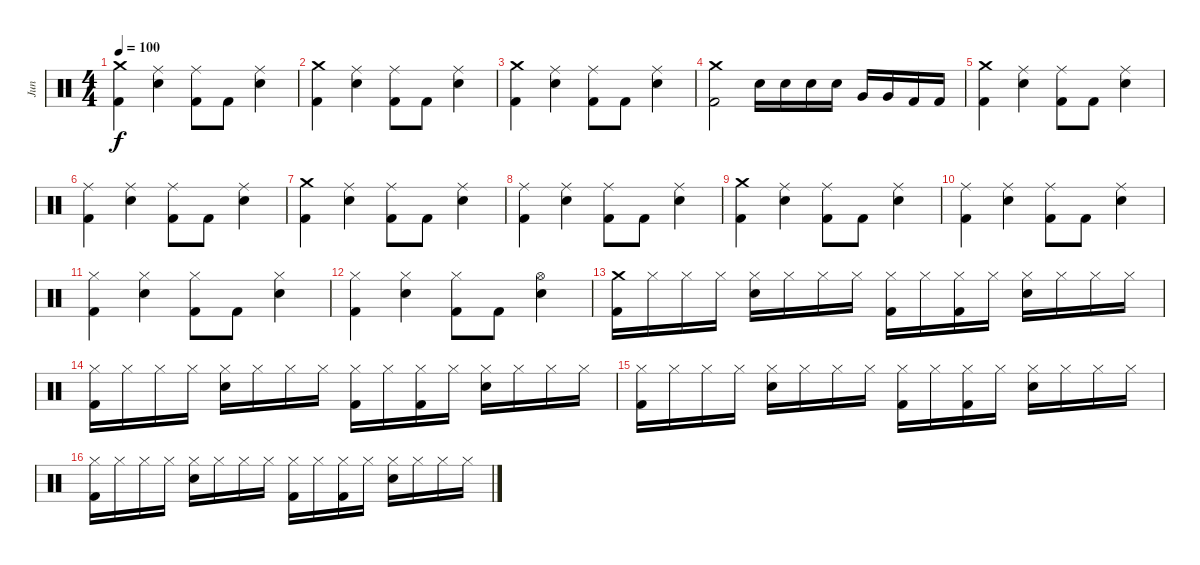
\track ("Jun " "Jun ") {instrument percussion}
\staff {score}
\articulation defaults
\ts (4 4)
\tempo 100
\clef neutral
\ks c
("Crash medium (hit)" "Kick (hit) 2").4{dy f} ("Ride (middle)" "Snare (hit) 2").4 ("Ride (middle)" "Kick (hit) 2").8 "Kick (hit) 2".8 ("Ride (middle)" "Snare (hit) 2").4 |
("Crash medium (hit)" "Kick (hit) 2").4 ("Ride (middle)" "Snare (hit) 2").4 ("Ride (middle)" "Kick (hit) 2").8 "Kick (hit) 2".8 ("Ride (middle)" "Snare (hit) 2").4 |
("Crash medium (hit)" "Kick (hit) 2").4 ("Ride (middle)" "Snare (hit) 2").4 ("Ride (middle)" "Kick (hit) 2").8 "Kick (hit) 2".8 ("Ride (middle)" "Snare (hit) 2").4 |
("Crash medium (hit)" "Kick (hit) 2").2 "Snare (hit) 2".16 "Snare (hit) 2".16 "Snare (hit) 2".16 "Snare (hit) 2".16 "Very Low Tom (hit)".16 "Very Low Tom (hit)".16 "Kick (hit) 2".16 "Kick (hit) 2".16 |
("Crash medium (hit)" "Kick (hit) 2").4 ("Ride (middle)" "Snare (hit) 2").4 ("Ride (middle)" "Kick (hit) 2").8 "Kick (hit) 2".8 ("Ride (middle)" "Snare (hit) 2").4 |
("Ride (middle)" "Kick (hit) 2").4 ("Ride (middle)" "Snare (hit) 2").4 ("Ride (middle)" "Kick (hit) 2").8 "Kick (hit) 2".8 ("Ride (middle)" "Snare (hit) 2").4 |
("Crash medium (hit)" "Kick (hit) 2").4 ("Ride (middle)" "Snare (hit) 2").4 ("Ride (middle)" "Kick (hit) 2").8 "Kick (hit) 2".8 ("Ride (middle)" "Snare (hit) 2").4 |
("Ride (middle)" "Kick (hit) 2").4 ("Ride (middle)" "Snare (hit) 2").4 ("Ride (middle)" "Kick (hit) 2").8 "Kick (hit) 2".8 ("Ride (middle)" "Snare (hit) 2").4 |
("Crash medium (hit)" "Kick (hit) 2").4 ("Ride (middle)" "Snare (hit) 2").4 ("Ride (middle)" "Kick (hit) 2").8 "Kick (hit) 2".8 ("Ride (middle)" "Snare (hit) 2").4 |
("Ride (middle)" "Kick (hit) 2").4 ("Ride (middle)" "Snare (hit) 2").4 ("Ride (middle)" "Kick (hit) 2").8 "Kick (hit) 2".8 ("Ride (middle)" "Snare (hit) 2").4 |
("Hi-Hat (closed)" "Kick (hit) 2").4 ("Hi-Hat (closed)" "Snare (hit) 2").4 ("Hi-Hat (closed)" "Kick (hit) 2").8 "Kick (hit) 2".8 ("Hi-Hat (closed)" "Snare (hit) 2").4 |
("Hi-Hat (closed)" "Kick (hit) 2").4 ("Hi-Hat (closed)" "Snare (hit) 2").4 ("Hi-Hat (closed)" "Kick (hit) 2").8 "Kick (hit) 2".8 ("Hi-Hat (open)" "Snare (hit) 2").4 |
("Crash medium (hit)" "Kick (hit) 2").16 "Hi-Hat (closed)".16 "Hi-Hat (closed)".16 "Hi-Hat (closed)".16 ("Hi-Hat (closed)" "Snare (hit) 2").16 "Hi-Hat (closed)".16 "Hi-Hat (closed)".16 "Hi-Hat (closed)".16 ("Hi-Hat (closed)" "Kick (hit) 2").16 "Hi-Hat (closed)".16 ("Hi-Hat (closed)" "Kick (hit) 2").16 "Hi-Hat (closed)".16 ("Hi-Hat (closed)" "Snare (hit) 2").16 "Hi-Hat (closed)".16 "Hi-Hat (closed)".16 "Hi-Hat (closed)".16 |
("Hi-Hat (closed)" "Kick (hit) 2").16 "Hi-Hat (closed)".16 "Hi-Hat (closed)".16 "Hi-Hat (closed)".16 ("Hi-Hat (closed)" "Snare (hit) 2").16 "Hi-Hat (closed)".16 "Hi-Hat (closed)".16 "Hi-Hat (closed)".16 ("Hi-Hat (closed)" "Kick (hit) 2").16 "Hi-Hat (closed)".16 ("Hi-Hat (closed)" "Kick (hit) 2").16 "Hi-Hat (closed)".16 ("Hi-Hat (closed)" "Snare (hit) 2").16 "Hi-Hat (closed)".16 "Hi-Hat (closed)".16 "Hi-Hat (closed)".16 |
("Hi-Hat (closed)" "Kick (hit) 2").16 "Hi-Hat (closed)".16 "Hi-Hat (closed)".16 "Hi-Hat (closed)".16 ("Hi-Hat (closed)" "Snare (hit) 2").16 "Hi-Hat (closed)".16 "Hi-Hat (closed)".16 "Hi-Hat (closed)".16 ("Hi-Hat (closed)" "Kick (hit) 2").16 "Hi-Hat (closed)".16 ("Hi-Hat (closed)" "Kick (hit) 2").16 "Hi-Hat (closed)".16 ("Hi-Hat (closed)" "Snare (hit) 2").16 "Hi-Hat (closed)".16 "Hi-Hat (closed)".16 "Hi-Hat (closed)".16 |
("Hi-Hat (closed)" "Kick (hit) 2").16 "Hi-Hat (closed)".16 "Hi-Hat (closed)".16 "Hi-Hat (closed)".16 ("Hi-Hat (closed)" "Snare (hit) 2").16 "Hi-Hat (closed)".16 "Hi-Hat (closed)".16 "Hi-Hat (closed)".16 ("Hi-Hat (closed)" "Kick (hit) 2").16 "Hi-Hat (closed)".16 ("Hi-Hat (closed)" "Kick (hit) 2").16 "Hi-Hat (closed)".16 ("Hi-Hat (closed)" "Snare (hit) 2").16 "Hi-Hat (closed)".16 "Hi-Hat (closed)".16 "Hi-Hat (closed)".16
